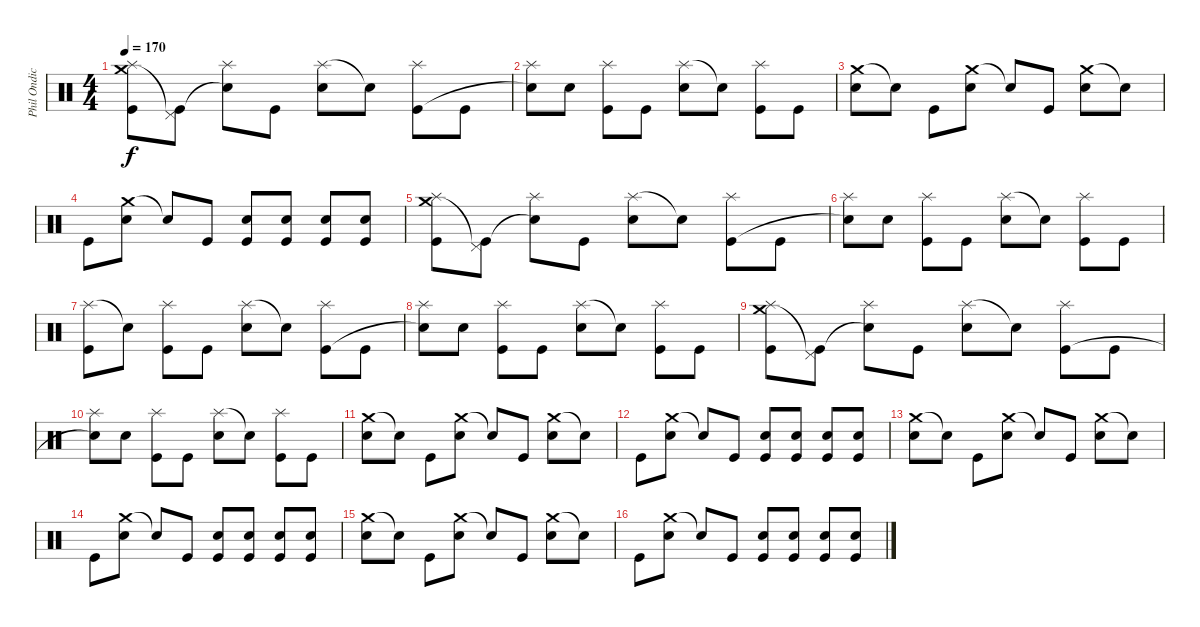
\track ("Phil Ondich (Drums)" "Phil Ondic") {instrument percussion}
\staff {score}
\articulation defaults
\ts (4 4)
\tempo 170
\clef neutral
\ks c
("Crash medium (hit)" "Splash (hit)" "Kick (hit)").8{dy f} ("Pedal Hi-Hat (hit)"{t} "Kick (hit)").8 ("Splash (hit)" "Snare (hit)"{t}).8 "Kick (hit)".8 ("Splash (hit)" "Electric Snare (hit)").8 "Snare (hit)"{t}.8 ("Splash (hit)" "Kick (hit)").8 "Kick (hit)".8 |
("Splash (hit)" "Snare (hit)"{t}).8 "Electric Snare (hit)".8 ("Splash (hit)" "Kick (hit)").8 "Kick (hit)".8 ("Splash (hit)" "Electric Snare (hit)").8 "Snare (hit)"{t}.8 ("Splash (hit)" "Kick (hit)").8 "Kick (hit)".8 |
("Crash medium (hit)" "Electric Snare (hit)").8 "Snare (hit)"{t}.8 "Kick (hit)".8 ("Crash medium (hit)" "Electric Snare (hit)").8 "Snare (hit)"{t}.8 "Kick (hit)".8 ("Crash medium (hit)" "Electric Snare (hit)").8 "Snare (hit)"{t}.8 |
"Kick (hit)".8 ("Crash medium (hit)" "Electric Snare (hit)").8 "Snare (hit)"{t}.8 "Kick (hit)".8 ("Electric Snare (hit)" "Kick (hit)").8 ("Electric Snare (hit)" "Kick (hit)").8 ("Electric Snare (hit)" "Kick (hit)").8 ("Electric Snare (hit)" "Kick (hit)").8 |
("Crash medium (hit)" "Splash (hit)" "Kick (hit)").8 ("Pedal Hi-Hat (hit)"{t} "Kick (hit)").8 ("Splash (hit)" "Snare (hit)"{t}).8 "Kick (hit)".8 ("Splash (hit)" "Electric Snare (hit)").8 "Snare (hit)"{t}.8 ("Splash (hit)" "Kick (hit)").8 "Kick (hit)".8 |
("Splash (hit)" "Snare (hit)"{t}).8 "Electric Snare (hit)".8 ("Splash (hit)" "Kick (hit)").8 "Kick (hit)".8 ("Splash (hit)" "Electric Snare (hit)").8 "Snare (hit)"{t}.8 ("Splash (hit)" "Kick (hit)").8 "Kick (hit)".8 |
("Splash (hit)" "Kick (hit)").8 "Snare (hit)"{t}.8 ("Splash (hit)" "Kick (hit)").8 "Kick (hit)".8 ("Splash (hit)" "Electric Snare (hit)").8 "Snare (hit)"{t}.8 ("Splash (hit)" "Kick (hit)").8 "Kick (hit)".8 |
("Splash (hit)" "Snare (hit)"{t}).8 "Electric Snare (hit)".8 ("Splash (hit)" "Kick (hit)").8 "Kick (hit)".8 ("Splash (hit)" "Electric Snare (hit)").8 "Snare (hit)"{t}.8 ("Splash (hit)" "Kick (hit)").8 "Kick (hit)".8 |
("Crash medium (hit)" "Splash (hit)" "Kick (hit)").8 ("Pedal Hi-Hat (hit)"{t} "Kick (hit)").8 ("Splash (hit)" "Snare (hit)"{t}).8 "Kick (hit)".8 ("Splash (hit)" "Electric Snare (hit)").8 "Snare (hit)"{t}.8 ("Splash (hit)" "Kick (hit)").8 "Kick (hit)".8 |
("Splash (hit)" "Snare (hit)"{t}).8 "Electric Snare (hit)".8 ("Splash (hit)" "Kick (hit)").8 "Kick (hit)".8 ("Splash (hit)" "Electric Snare (hit)").8 "Snare (hit)"{t}.8 ("Splash (hit)" "Kick (hit)").8 "Kick (hit)".8 |
("Crash medium (hit)" "Electric Snare (hit)").8 "Snare (hit)"{t}.8 "Kick (hit)".8 ("Crash medium (hit)" "Electric Snare (hit)").8 "Snare (hit)"{t}.8 "Kick (hit)".8 ("Crash medium (hit)" "Electric Snare (hit)").8 "Snare (hit)"{t}.8 |
"Kick (hit)".8 ("Crash medium (hit)" "Electric Snare (hit)").8 "Snare (hit)"{t}.8 "Kick (hit)".8 ("Electric Snare (hit)" "Kick (hit)").8 ("Electric Snare (hit)" "Kick (hit)").8 ("Electric Snare (hit)" "Kick (hit)").8 ("Electric Snare (hit)" "Kick (hit)").8 |
("Crash medium (hit)" "Electric Snare (hit)").8 "Snare (hit)"{t}.8 "Kick (hit)".8 ("Crash medium (hit)" "Electric Snare (hit)").8 "Snare (hit)"{t}.8 "Kick (hit)".8 ("Crash medium (hit)" "Electric Snare (hit)").8 "Snare (hit)"{t}.8 |
"Kick (hit)".8 ("Crash medium (hit)" "Electric Snare (hit)").8 "Snare (hit)"{t}.8 "Kick (hit)".8 ("Electric Snare (hit)" "Kick (hit)").8 ("Electric Snare (hit)" "Kick (hit)").8 ("Electric Snare (hit)" "Kick (hit)").8 ("Electric Snare (hit)" "Kick (hit)").8 |
("Crash medium (hit)" "Electric Snare (hit)").8 "Snare (hit)"{t}.8 "Kick (hit)".8 ("Crash medium (hit)" "Electric Snare (hit)").8 "Snare (hit)"{t}.8 "Kick (hit)".8 ("Crash medium (hit)" "Electric Snare (hit)").8 "Snare (hit)"{t}.8 |
"Kick (hit)".8 ("Crash medium (hit)" "Electric Snare (hit)").8 "Snare (hit)"{t}.8 "Kick (hit)".8 ("Electric Snare (hit)" "Kick (hit)").8 ("Electric Snare (hit)" "Kick (hit)").8 ("Electric Snare (hit)" "Kick (hit)").8 ("Electric Snare (hit)" "Kick (hit)").8
